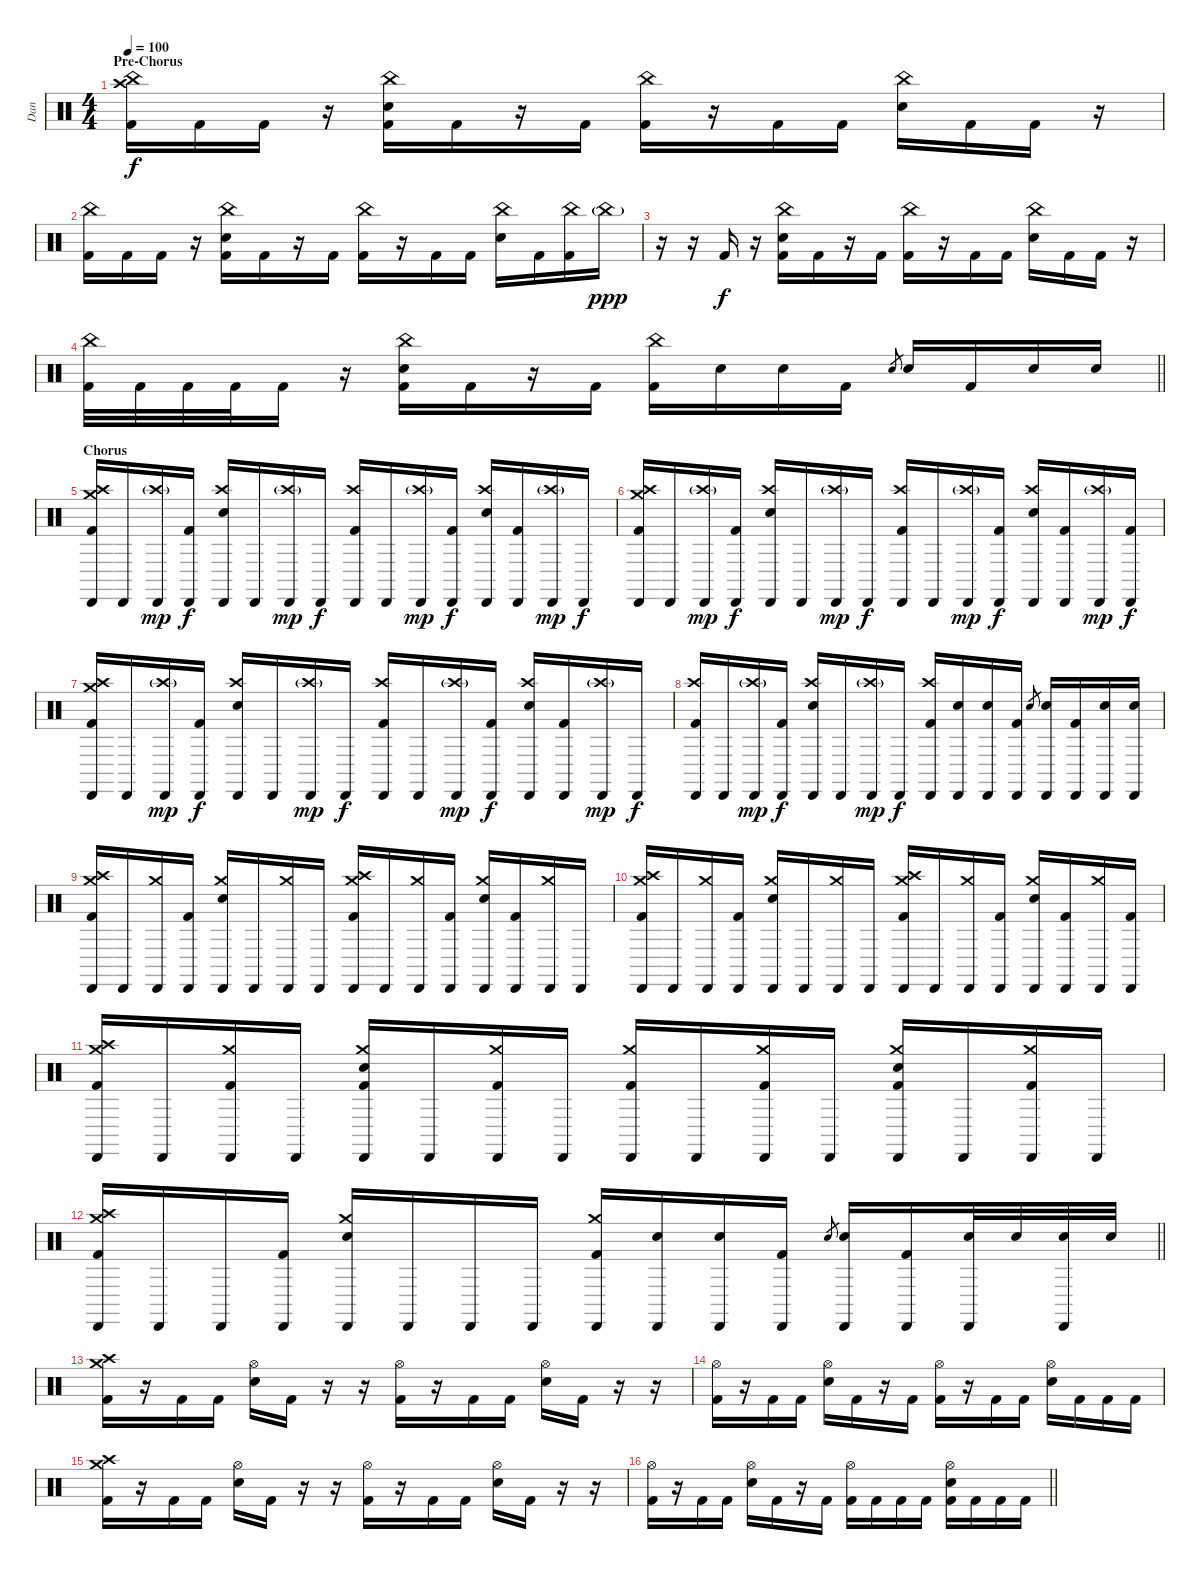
\track ("Dan" "Dan") {instrument percussion}
\staff {score}
\articulation defaults
\ts (4 4)
\section ("" "Pre-Chorus")
\tempo 100
\clef neutral
\ks c
("Crash high (hit)" "China (hit)" "Kick (hit) 2").16{dy f} "Kick (hit) 2".16 "Kick (hit) 2".16 r.16 ("China (hit)" "Snare (hit) 2" "Kick (hit) 2").16 "Kick (hit) 2".16 r.16 "Kick (hit) 2".16 ("China (hit)" "Kick (hit) 2").16 r.16 "Kick (hit) 2".16 "Kick (hit) 2".16 ("China (hit)" "Snare (hit) 2").16 "Kick (hit) 2".16 "Kick (hit) 2".16 r.16 |
("China (hit)" "Kick (hit) 2").16 "Kick (hit) 2".16 "Kick (hit) 2".16 r.16 ("China (hit)" "Snare (hit) 2" "Kick (hit) 2").16 "Kick (hit) 2".16 r.16 "Kick (hit) 2".16 ("China (hit)" "Kick (hit) 2").16 r.16 "Kick (hit) 2".16 "Kick (hit) 2".16 ("China (hit)" "Snare (hit) 2").16 "Kick (hit) 2".16 ("China (hit)" "Kick (hit) 2").16 "China (hit)"{g}.16{dy ppp} |
r.16 r.16 "Kick (hit) 2".16{dy f} r.16 ("China (hit)" "Snare (hit) 2" "Kick (hit) 2").16 "Kick (hit) 2".16 r.16 "Kick (hit) 2".16 ("China (hit)" "Kick (hit) 2").16 r.16 "Kick (hit) 2".16 "Kick (hit) 2".16 ("China (hit)" "Snare (hit) 2").16 "Kick (hit) 2".16 "Kick (hit) 2".16 r.16 |
\barLineRight lightlight
("China (hit)" "Kick (hit) 2").32 "Kick (hit) 2".32 "Kick (hit) 2".32 "Kick (hit) 2".32 "Kick (hit) 2".16 r.16 ("China (hit)" "Snare (hit) 2" "Kick (hit) 2").16 "Kick (hit) 2".16 r.16 "Kick (hit) 2".16 ("China (hit)" "Kick (hit) 2").16 "Snare (hit) 2".16 "Snare (hit) 2".16 "Kick (hit) 2".16 "Snare (hit) 2".8{gr} "Snare (hit) 2".16 "Kick (hit) 2".16 "Snare (hit) 2".16 "Snare (hit) 2".16 |
\section ("" "Chorus")
("Cabasa (hit)" "Crash high (hit)" "Crash medium (hit)" "Kick (hit) 2").16 "Cabasa (hit)".16 ("Cabasa (hit)" "Crash high (hit)"{g}).16{dy mp} ("Cabasa (hit)" "Kick (hit) 2").16{dy f} ("Cabasa (hit)" "Crash high (hit)" "Snare (hit) 2").16 "Cabasa (hit)".16 ("Cabasa (hit)" "Crash high (hit)"{g}).16{dy mp} "Cabasa (hit)".16{dy f} ("Cabasa (hit)" "Crash high (hit)" "Kick (hit) 2").16 "Cabasa (hit)".16 ("Cabasa (hit)" "Crash high (hit)"{g}).16{dy mp} ("Cabasa (hit)" "Kick (hit) 2").16{dy f} ("Cabasa (hit)" "Crash high (hit)" "Snare (hit) 2").16 ("Cabasa (hit)" "Kick (hit) 2").16 ("Cabasa (hit)" "Crash high (hit)"{g}).16{dy mp} "Cabasa (hit)".16{dy f} |
("Cabasa (hit)" "Crash high (hit)" "Crash medium (hit)" "Kick (hit) 2").16 "Cabasa (hit)".16 ("Cabasa (hit)" "Crash high (hit)"{g}).16{dy mp} ("Cabasa (hit)" "Kick (hit) 2").16{dy f} ("Cabasa (hit)" "Crash high (hit)" "Snare (hit) 2").16 "Cabasa (hit)".16 ("Cabasa (hit)" "Crash high (hit)"{g}).16{dy mp} "Cabasa (hit)".16{dy f} ("Cabasa (hit)" "Crash high (hit)" "Kick (hit) 2").16 "Cabasa (hit)".16 ("Cabasa (hit)" "Crash high (hit)"{g}).16{dy mp} ("Cabasa (hit)" "Kick (hit) 2").16{dy f} ("Cabasa (hit)" "Crash high (hit)" "Snare (hit) 2").16 ("Cabasa (hit)" "Kick (hit) 2").16 ("Cabasa (hit)" "Crash high (hit)"{g}).16{dy mp} ("Cabasa (hit)" "Kick (hit) 2").16{dy f} |
("Cabasa (hit)" "Crash high (hit)" "Crash medium (hit)" "Kick (hit) 2").16 "Cabasa (hit)".16 ("Cabasa (hit)" "Crash high (hit)"{g}).16{dy mp} ("Cabasa (hit)" "Kick (hit) 2").16{dy f} ("Cabasa (hit)" "Crash high (hit)" "Snare (hit) 2").16 "Cabasa (hit)".16 ("Cabasa (hit)" "Crash high (hit)"{g}).16{dy mp} "Cabasa (hit)".16{dy f} ("Cabasa (hit)" "Crash high (hit)" "Kick (hit) 2").16 "Cabasa (hit)".16 ("Cabasa (hit)" "Crash high (hit)"{g}).16{dy mp} ("Cabasa (hit)" "Kick (hit) 2").16{dy f} ("Cabasa (hit)" "Crash high (hit)" "Snare (hit) 2").16 ("Cabasa (hit)" "Kick (hit) 2").16 ("Cabasa (hit)" "Crash high (hit)"{g}).16{dy mp} "Cabasa (hit)".16{dy f} |
("Cabasa (hit)" "Crash high (hit)" "Kick (hit) 2").16 "Cabasa (hit)".16 ("Cabasa (hit)" "Crash high (hit)"{g}).16{dy mp} ("Cabasa (hit)" "Kick (hit) 2").16{dy f} ("Cabasa (hit)" "Crash high (hit)" "Snare (hit) 2").16 "Cabasa (hit)".16 ("Cabasa (hit)" "Crash high (hit)"{g}).16{dy mp} "Cabasa (hit)".16{dy f} ("Cabasa (hit)" "Crash high (hit)" "Kick (hit) 2").16 ("Cabasa (hit)" "Snare (hit) 2").16 ("Cabasa (hit)" "Snare (hit) 2").16 ("Cabasa (hit)" "Kick (hit) 2").16 "Snare (hit) 2".8{gr} ("Cabasa (hit)" "Snare (hit) 2").16 ("Cabasa (hit)" "Kick (hit) 2").16 ("Cabasa (hit)" "Snare (hit) 2").16 ("Cabasa (hit)" "Snare (hit) 2").16 |
("Cabasa (hit)" "Crash high (hit)" "Crash medium (hit)" "Kick (hit) 2").16 "Cabasa (hit)".16 ("Cabasa (hit)" "Crash medium (hit)").16 ("Cabasa (hit)" "Kick (hit) 2").16 ("Cabasa (hit)" "Crash medium (hit)" "Snare (hit) 2").16 "Cabasa (hit)".16 ("Cabasa (hit)" "Crash medium (hit)").16 "Cabasa (hit)".16 ("Cabasa (hit)" "Crash high (hit)" "Crash medium (hit)" "Kick (hit) 2").16 "Cabasa (hit)".16 ("Cabasa (hit)" "Crash medium (hit)").16 ("Cabasa (hit)" "Kick (hit) 2").16 ("Cabasa (hit)" "Crash medium (hit)" "Snare (hit) 2").16 ("Cabasa (hit)" "Kick (hit) 2").16 ("Cabasa (hit)" "Crash medium (hit)").16 "Cabasa (hit)".16 |
("Cabasa (hit)" "Crash high (hit)" "Crash medium (hit)" "Kick (hit) 2").16 "Cabasa (hit)".16 ("Cabasa (hit)" "Crash medium (hit)").16 ("Cabasa (hit)" "Kick (hit) 2").16 ("Cabasa (hit)" "Crash medium (hit)" "Snare (hit) 2").16 "Cabasa (hit)".16 ("Cabasa (hit)" "Crash medium (hit)").16 "Cabasa (hit)".16 ("Cabasa (hit)" "Crash high (hit)" "Crash medium (hit)" "Kick (hit) 2").16 "Cabasa (hit)".16 ("Cabasa (hit)" "Crash medium (hit)").16 ("Cabasa (hit)" "Kick (hit) 2").16 ("Cabasa (hit)" "Crash medium (hit)" "Snare (hit) 2").16 ("Cabasa (hit)" "Kick (hit) 2").16 ("Cabasa (hit)" "Crash medium (hit)").16 ("Cabasa (hit)" "Kick (hit) 2").16 |
("Cabasa (hit)" "Crash high (hit)" "Crash medium (hit)" "Kick (hit) 2").16 "Cabasa (hit)".16 ("Cabasa (hit)" "Crash medium (hit)" "Kick (hit) 2").16 "Cabasa (hit)".16 ("Cabasa (hit)" "Crash medium (hit)" "Snare (hit) 2" "Kick (hit) 2").16 "Cabasa (hit)".16 ("Cabasa (hit)" "Crash medium (hit)" "Kick (hit) 2").16 "Cabasa (hit)".16 ("Cabasa (hit)" "Crash medium (hit)" "Kick (hit) 2").16 "Cabasa (hit)".16 ("Cabasa (hit)" "Crash medium (hit)" "Kick (hit) 2").16 "Cabasa (hit)".16 ("Cabasa (hit)" "Crash medium (hit)" "Snare (hit) 2" "Kick (hit) 2").16 "Cabasa (hit)".16 ("Cabasa (hit)" "Crash medium (hit)" "Kick (hit) 2").16 "Cabasa (hit)".16 |
\barLineRight lightlight
("Cabasa (hit)" "Crash high (hit)" "Crash medium (hit)" "Kick (hit) 2").16 "Cabasa (hit)".16 "Cabasa (hit)".16 ("Cabasa (hit)" "Kick (hit) 2").16 ("Cabasa (hit)" "Crash medium (hit)" "Snare (hit) 2").16 "Cabasa (hit)".16 "Cabasa (hit)".16 "Cabasa (hit)".16 ("Cabasa (hit)" "Crash medium (hit)" "Kick (hit) 2").16 ("Cabasa (hit)" "Snare (hit) 2").16 ("Cabasa (hit)" "Snare (hit) 2").16 ("Cabasa (hit)" "Kick (hit) 2").16 "Snare (hit) 2".8{gr} ("Cabasa (hit)" "Snare (hit) 2").16 ("Cabasa (hit)" "Kick (hit) 2").16 ("Cabasa (hit)" "Snare (hit) 2").32 "Snare (hit) 2".32 ("Cabasa (hit)" "Snare (hit) 2").32 "Snare (hit) 2".32 |
\section ("" "")
("Crash medium (hit)" "Crash high (hit)" "Kick (hit) 2").16 r.16 "Kick (hit) 2".16 "Kick (hit) 2".16 ("Hi-Hat (open)" "Snare (hit) 2").16 "Kick (hit) 2".16 r.16 r.16 ("Hi-Hat (open)" "Kick (hit) 2").16 r.16 "Kick (hit) 2".16 "Kick (hit) 2".16 ("Hi-Hat (open)" "Snare (hit) 2").16 "Kick (hit) 2".16 r.16 r.16 |
("Hi-Hat (open)" "Kick (hit) 2").16 r.16 "Kick (hit) 2".16 "Kick (hit) 2".16 ("Hi-Hat (open)" "Snare (hit) 2").16 "Kick (hit) 2".16 r.16 "Kick (hit) 2".16 ("Hi-Hat (open)" "Kick (hit) 2").16 r.16 "Kick (hit) 2".16 "Kick (hit) 2".16 ("Hi-Hat (open)" "Snare (hit) 2").16 "Kick (hit) 2".16 "Kick (hit) 2".16 "Kick (hit) 2".16 |
("Crash medium (hit)" "Crash high (hit)" "Kick (hit) 2").16 r.16 "Kick (hit) 2".16 "Kick (hit) 2".16 ("Hi-Hat (open)" "Snare (hit) 2").16 "Kick (hit) 2".16 r.16 r.16 ("Hi-Hat (open)" "Kick (hit) 2").16 r.16 "Kick (hit) 2".16 "Kick (hit) 2".16 ("Hi-Hat (open)" "Snare (hit) 2").16 "Kick (hit) 2".16 r.16 r.16 |
\barLineRight lightlight
("Hi-Hat (open)" "Kick (hit) 2").16 r.16 "Kick (hit) 2".16 "Kick (hit) 2".16 ("Hi-Hat (open)" "Snare (hit) 2").16 "Kick (hit) 2".16 r.16 "Kick (hit) 2".16 ("Hi-Hat (open)" "Kick (hit) 2").16 "Kick (hit) 2".16 "Kick (hit) 2".16 "Kick (hit) 2".16 ("Hi-Hat (open)" "Snare (hit) 2" "Kick (hit) 2").16 "Kick (hit) 2".16 "Kick (hit) 2".16 "Kick (hit) 2".16
